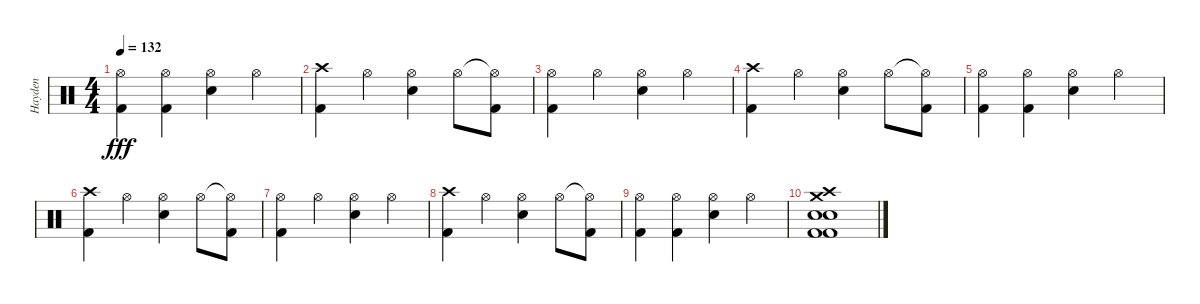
\track ("Hayden" "Hayden") {instrument percussion}
\staff {score}
\articulation defaults
\ts (4 4)
\tempo 132
\clef neutral
\ks c
("Hi-Hat (open)" "Kick (hit) 2").4{dy fff} ("Hi-Hat (open)" "Kick (hit) 2").4 ("Hi-Hat (open)" "Electric Snare (hit)").4 "Hi-Hat (open)".4 |
("Crash high (hit)" "Kick (hit) 2").4 "Hi-Hat (open)".4 ("Hi-Hat (open)" "Electric Snare (hit)").4 "Hi-Hat (open)".8 ("Hi-Hat (open)"{t} "Kick (hit) 2").8 |
("Hi-Hat (open)" "Kick (hit) 2").4 "Hi-Hat (open)".4 ("Hi-Hat (open)" "Electric Snare (hit)").4 "Hi-Hat (open)".4 |
("Crash high (hit)" "Kick (hit) 2").4 "Hi-Hat (open)".4 ("Hi-Hat (open)" "Electric Snare (hit)").4 "Hi-Hat (open)".8 ("Hi-Hat (open)"{t} "Kick (hit) 2").8 |
("Hi-Hat (open)" "Kick (hit) 2").4 ("Hi-Hat (open)" "Kick (hit) 2").4 ("Hi-Hat (open)" "Electric Snare (hit)").4 "Hi-Hat (open)".4 |
("Crash high (hit)" "Kick (hit) 2").4 "Hi-Hat (open)".4 ("Hi-Hat (open)" "Electric Snare (hit)").4 "Hi-Hat (open)".8 ("Hi-Hat (open)"{t} "Kick (hit) 2").8 |
("Hi-Hat (open)" "Kick (hit) 2").4 "Hi-Hat (open)".4 ("Hi-Hat (open)" "Electric Snare (hit)").4 "Hi-Hat (open)".4 |
("Crash high (hit)" "Kick (hit) 2").4 "Hi-Hat (open)".4 ("Hi-Hat (open)" "Electric Snare (hit)").4 "Hi-Hat (open)".8 ("Hi-Hat (open)"{t} "Kick (hit) 2").8 |
("Hi-Hat (open)" "Kick (hit) 2").4 ("Hi-Hat (open)" "Kick (hit) 2").4 ("Hi-Hat (open)" "Electric Snare (hit)").4 "Hi-Hat (open)".4 |
("Crash high (hit)" "Electric Snare (hit)" "Kick (hit) 2" "Kick (hit) 2" "Electric Snare (hit)" "Crash medium (hit)").1
